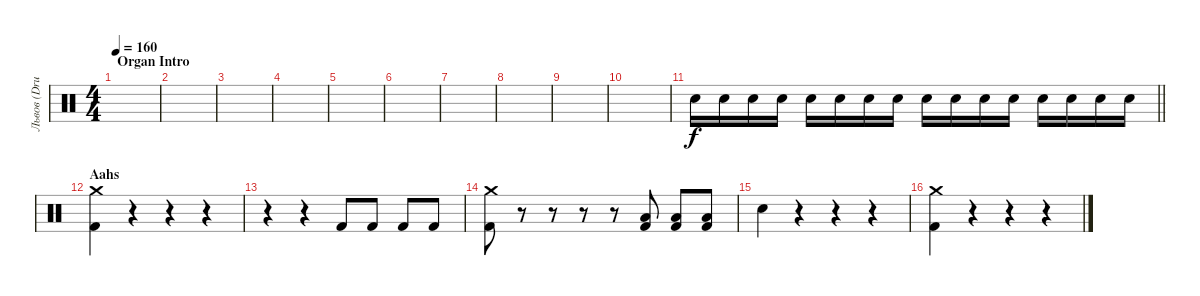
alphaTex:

\track ("Львов (Drums)" "Львов (Dru") {instrument percussion}
\staff {score}
\articulation defaults
\ts (4 4)
\section ("" "Organ Intro ")
\tempo 160
\clef neutral
\ks c
|
|
|
|
|
|
|
|
|
|
\barLineRight lightlight "Snare (hit) 2".16 "Snare (hit) 2".16 "Snare (hit) 2".16 "Snare (hit) 2".16 "Snare (hit) 2".16 "Snare (hit) 2".16 "Snare (hit) 2".16 "Snare (hit) 2".16 "Snare (hit) 2".16 "Snare (hit) 2".16 "Snare (hit) 2".16 "Snare (hit) 2".16 "Snare (hit) 2".16 "Snare (hit) 2".16 "Snare (hit) 2".16 "Snare (hit) 2".16
|
\section ("" "Aahs")
("Kick (hit) 2" "Crash medium (hit)").4 r.4 r.4 r.4 |
r.4 r.4 "Kick (hit) 2".8 "Kick (hit) 2".8 "Kick (hit) 2".8 "Kick (hit) 2".8 |
("Kick (hit) 2" "Crash medium (hit)").8 r.8 r.8 r.8 r.8 ("Kick (hit) 2" "Low Floor Tom (hit)").8 ("Kick (hit) 2" "Low Floor Tom (hit)").8 ("Kick (hit) 2" "Low Floor Tom (hit)").8 |
"Snare (hit) 2".4 r.4 r.4 r.4 |
("Kick (hit) 2" "Crash medium (hit)").4 r.4 r.4 r.4
